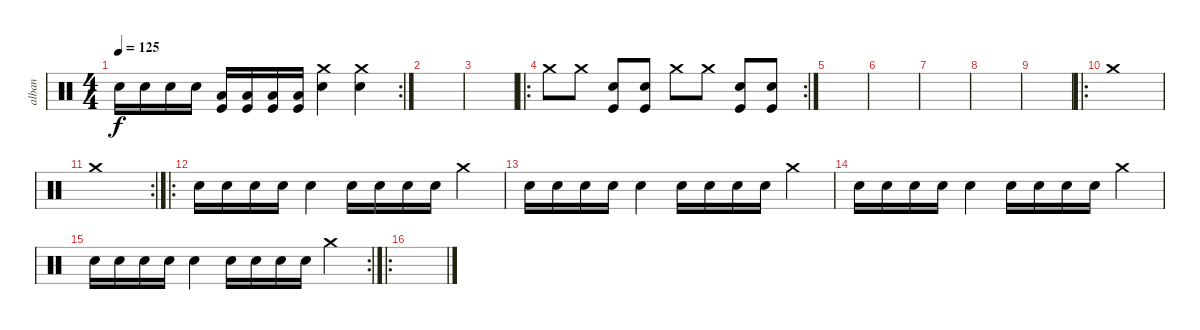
\track ("alban" "alban") {instrument percussion}
\staff {score}
\articulation defaults
\rc 2
\ts (4 4)
\tempo 125
\clef neutral
\ks c "Snare (hit) 2".16{dy f} "Snare (hit) 2".16 "Snare (hit) 2".16 "Snare (hit) 2".16
("Low Floor Tom (hit)" "Kick (hit)").16 ("Low Floor Tom (hit)" "Kick (hit)").16 ("Low Floor Tom (hit)" "Kick (hit)").16 ("Low Floor Tom (hit)" "Kick (hit)").16 ("Crash medium (hit)" "Metronome (bell)").4 ("Crash medium (hit)" "Metronome (bell)").4 |
|
|
\ro
\rc 2 "Crash medium (hit)".8 "Crash medium (hit)".8
("Snare (hit) 2" "Kick (hit)").8 ("Snare (hit) 2" "Kick (hit)").8 "Crash medium (hit)".8 "Crash medium (hit)".8 ("Snare (hit) 2" "Kick (hit)").8 ("Snare (hit) 2" "Kick (hit)").8 |
|
|
|
|
|
\ro "Crash medium (hit)".1
|
\rc 2 "Crash medium (hit)".1
|
\ro "Snare (hit) 2".16 "Snare (hit) 2".16 "Snare (hit) 2".16 "Snare (hit) 2".16 "Snare (hit) 2".4 "Snare (hit) 2".16 "Snare (hit) 2".16 "Snare (hit) 2".16 "Snare (hit) 2".16 "Crash medium (hit)".4
|
"Snare (hit) 2".16 "Snare (hit) 2".16 "Snare (hit) 2".16 "Snare (hit) 2".16 "Snare (hit) 2".4 "Snare (hit) 2".16 "Snare (hit) 2".16 "Snare (hit) 2".16 "Snare (hit) 2".16 "Crash medium (hit)".4 |
"Snare (hit) 2".16 "Snare (hit) 2".16 "Snare (hit) 2".16 "Snare (hit) 2".16 "Snare (hit) 2".4 "Snare (hit) 2".16 "Snare (hit) 2".16 "Snare (hit) 2".16 "Snare (hit) 2".16 "Crash medium (hit)".4 |
\rc 2 "Snare (hit) 2".16 "Snare (hit) 2".16 "Snare (hit) 2".16 "Snare (hit) 2".16 "Snare (hit) 2".4 "Snare (hit) 2".16 "Snare (hit) 2".16 "Snare (hit) 2".16 "Snare (hit) 2".16 "Crash medium (hit)".4
|
\ro
